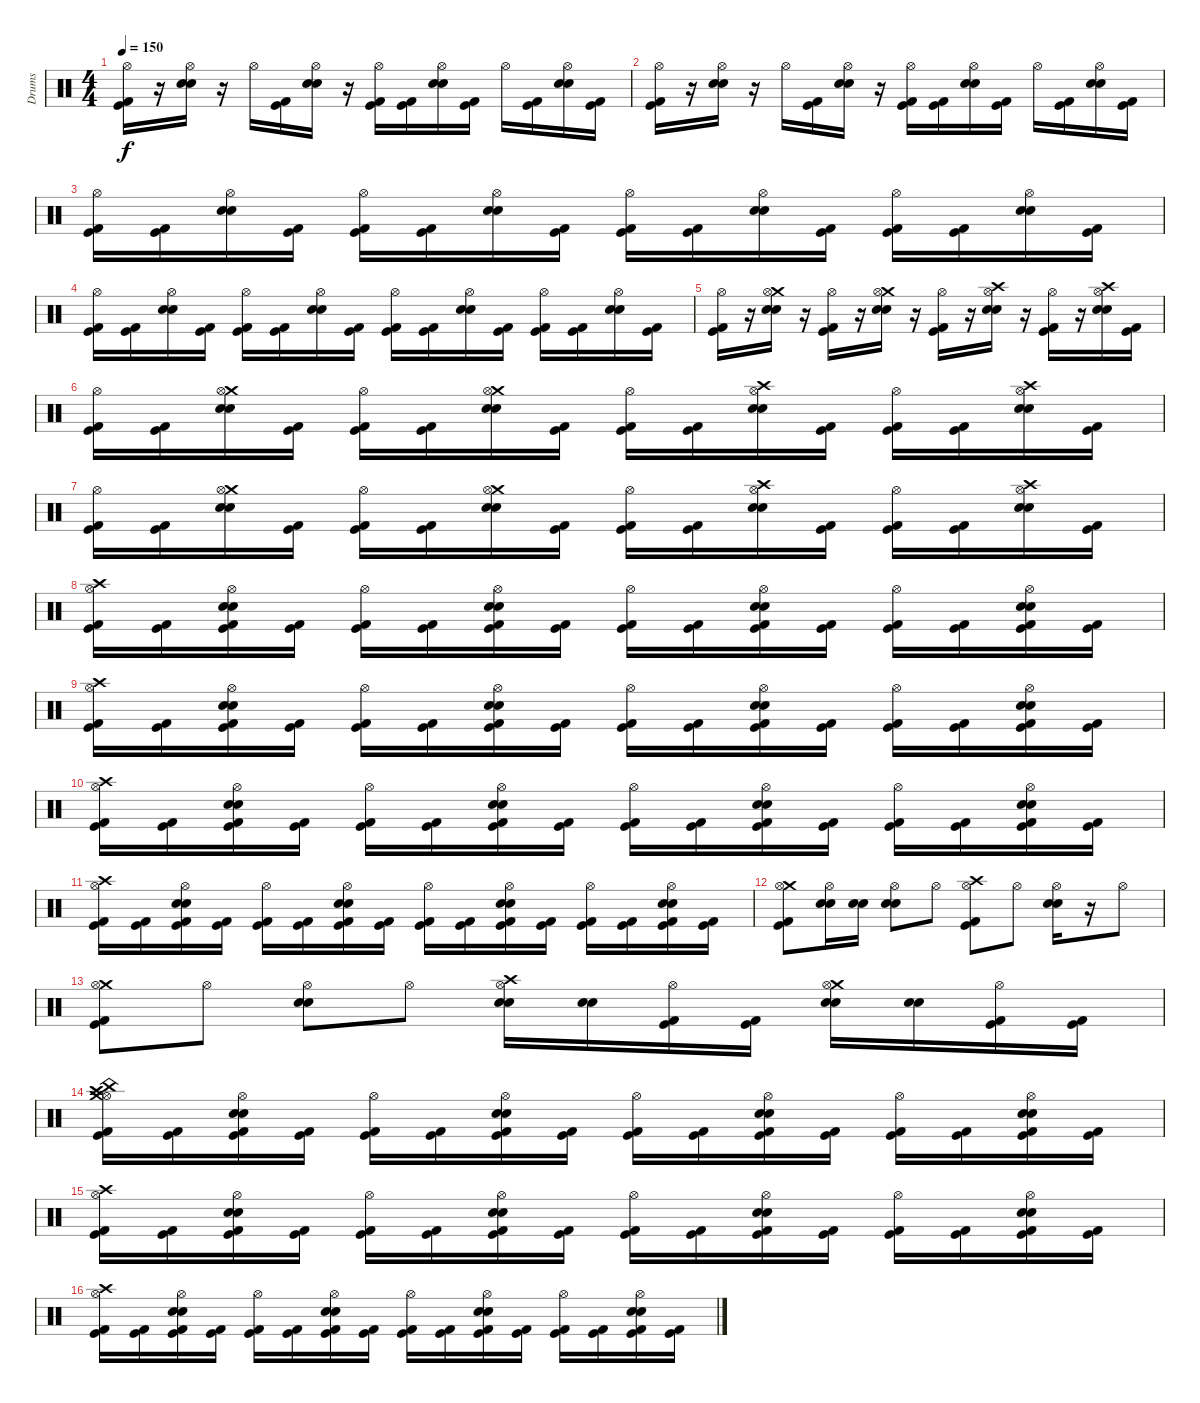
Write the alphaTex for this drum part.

\track ("Drums" "Drums") {instrument percussion}
\staff {score}
\articulation defaults
\ts (4 4)
\tempo 150
\clef neutral
\ks c
("Hi-Hat (open)" "Kick (hit) 2" "Kick (hit)").16{dy f} r.16 ("Hi-Hat (open)" "Snare (hit) 2" "Electric Snare (hit)").16 r.16 "Hi-Hat (open)".16 ("Kick (hit) 2" "Kick (hit)").16 ("Hi-Hat (open)" "Snare (hit) 2" "Electric Snare (hit)").16 r.16 ("Hi-Hat (open)" "Kick (hit) 2" "Kick (hit)").16 ("Kick (hit) 2" "Kick (hit)").16 ("Hi-Hat (open)" "Electric Snare (hit)" "Snare (hit) 2").16 ("Kick (hit) 2" "Kick (hit)").16 "Hi-Hat (open)".16 ("Kick (hit) 2" "Kick (hit)").16 ("Hi-Hat (open)" "Electric Snare (hit)" "Snare (hit) 2").16 ("Kick (hit) 2" "Kick (hit)").16 |
("Hi-Hat (open)" "Kick (hit) 2" "Kick (hit)").16 r.16 ("Hi-Hat (open)" "Snare (hit) 2" "Electric Snare (hit)").16 r.16 "Hi-Hat (open)".16 ("Kick (hit) 2" "Kick (hit)").16 ("Hi-Hat (open)" "Snare (hit) 2" "Electric Snare (hit)").16 r.16 ("Hi-Hat (open)" "Kick (hit) 2" "Kick (hit)").16 ("Kick (hit) 2" "Kick (hit)").16 ("Hi-Hat (open)" "Electric Snare (hit)" "Snare (hit) 2").16 ("Kick (hit) 2" "Kick (hit)").16 "Hi-Hat (open)".16 ("Kick (hit) 2" "Kick (hit)").16 ("Hi-Hat (open)" "Electric Snare (hit)" "Snare (hit) 2").16 ("Kick (hit) 2" "Kick (hit)").16 |
("Hi-Hat (open)" "Kick (hit) 2" "Kick (hit)").16 ("Kick (hit) 2" "Kick (hit)").16 ("Hi-Hat (open)" "Snare (hit) 2" "Electric Snare (hit)").16 ("Kick (hit) 2" "Kick (hit)").16 ("Hi-Hat (open)" "Kick (hit) 2" "Kick (hit)").16 ("Kick (hit) 2" "Kick (hit)").16 ("Hi-Hat (open)" "Snare (hit) 2" "Electric Snare (hit)").16 ("Kick (hit) 2" "Kick (hit)").16 ("Hi-Hat (open)" "Kick (hit) 2" "Kick (hit)").16 ("Kick (hit) 2" "Kick (hit)").16 ("Hi-Hat (open)" "Electric Snare (hit)" "Snare (hit) 2").16 ("Kick (hit) 2" "Kick (hit)").16 ("Hi-Hat (open)" "Kick (hit) 2" "Kick (hit)").16 ("Kick (hit) 2" "Kick (hit)").16 ("Hi-Hat (open)" "Electric Snare (hit)" "Snare (hit) 2").16 ("Kick (hit) 2" "Kick (hit)").16 |
("Hi-Hat (open)" "Kick (hit) 2" "Kick (hit)").16 ("Kick (hit) 2" "Kick (hit)").16 ("Hi-Hat (open)" "Snare (hit) 2" "Electric Snare (hit)").16 ("Kick (hit) 2" "Kick (hit)").16 ("Hi-Hat (open)" "Kick (hit) 2" "Kick (hit)").16 ("Kick (hit) 2" "Kick (hit)").16 ("Hi-Hat (open)" "Snare (hit) 2" "Electric Snare (hit)").16 ("Kick (hit) 2" "Kick (hit)").16 ("Hi-Hat (open)" "Kick (hit) 2" "Kick (hit)").16 ("Kick (hit) 2" "Kick (hit)").16 ("Hi-Hat (open)" "Electric Snare (hit)" "Snare (hit) 2").16 ("Kick (hit) 2" "Kick (hit)").16 ("Hi-Hat (open)" "Kick (hit) 2" "Kick (hit)").16 ("Kick (hit) 2" "Kick (hit)").16 ("Hi-Hat (open)" "Electric Snare (hit)" "Snare (hit) 2").16 ("Kick (hit) 2" "Kick (hit)").16 |
("Hi-Hat (open)" "Kick (hit) 2" "Kick (hit)").16 r.16 ("Crash medium (hit)" "Hi-Hat (open)" "Snare (hit) 2" "Electric Snare (hit)").16 r.16 ("Hi-Hat (open)" "Kick (hit) 2" "Kick (hit)").16 r.16 ("Crash medium (hit)" "Hi-Hat (open)" "Snare (hit) 2" "Electric Snare (hit)").16 r.16 ("Hi-Hat (open)" "Kick (hit) 2" "Kick (hit)").16 r.16 ("Crash high (hit)" "Hi-Hat (open)" "Electric Snare (hit)" "Snare (hit) 2").16 r.16 ("Hi-Hat (open)" "Kick (hit) 2" "Kick (hit)").16 r.16 ("Crash high (hit)" "Hi-Hat (open)" "Electric Snare (hit)" "Snare (hit) 2").16 ("Kick (hit) 2" "Kick (hit)").16 |
("Hi-Hat (open)" "Kick (hit) 2" "Kick (hit)").16 ("Kick (hit) 2" "Kick (hit)").16 ("Crash medium (hit)" "Hi-Hat (open)" "Snare (hit) 2" "Electric Snare (hit)").16 ("Kick (hit) 2" "Kick (hit)").16 ("Hi-Hat (open)" "Kick (hit) 2" "Kick (hit)").16 ("Kick (hit) 2" "Kick (hit)").16 ("Crash medium (hit)" "Hi-Hat (open)" "Snare (hit) 2" "Electric Snare (hit)").16 ("Kick (hit) 2" "Kick (hit)").16 ("Hi-Hat (open)" "Kick (hit) 2" "Kick (hit)").16 ("Kick (hit) 2" "Kick (hit)").16 ("Crash high (hit)" "Hi-Hat (open)" "Electric Snare (hit)" "Snare (hit) 2").16 ("Kick (hit) 2" "Kick (hit)").16 ("Hi-Hat (open)" "Kick (hit) 2" "Kick (hit)").16 ("Kick (hit) 2" "Kick (hit)").16 ("Crash high (hit)" "Hi-Hat (open)" "Electric Snare (hit)" "Snare (hit) 2").16 ("Kick (hit) 2" "Kick (hit)").16 |
("Hi-Hat (open)" "Kick (hit) 2" "Kick (hit)").16 ("Kick (hit) 2" "Kick (hit)").16 ("Crash medium (hit)" "Hi-Hat (open)" "Snare (hit) 2" "Electric Snare (hit)").16 ("Kick (hit) 2" "Kick (hit)").16 ("Hi-Hat (open)" "Kick (hit) 2" "Kick (hit)").16 ("Kick (hit) 2" "Kick (hit)").16 ("Crash medium (hit)" "Hi-Hat (open)" "Snare (hit) 2" "Electric Snare (hit)").16 ("Kick (hit) 2" "Kick (hit)").16 ("Hi-Hat (open)" "Kick (hit) 2" "Kick (hit)").16 ("Kick (hit) 2" "Kick (hit)").16 ("Crash high (hit)" "Hi-Hat (open)" "Electric Snare (hit)" "Snare (hit) 2").16 ("Kick (hit) 2" "Kick (hit)").16 ("Hi-Hat (open)" "Kick (hit) 2" "Kick (hit)").16 ("Kick (hit) 2" "Kick (hit)").16 ("Crash high (hit)" "Hi-Hat (open)" "Electric Snare (hit)" "Snare (hit) 2").16 ("Kick (hit) 2" "Kick (hit)").16 |
("Crash high (hit)" "Hi-Hat (open)" "Kick (hit) 2" "Kick (hit)").16 ("Kick (hit) 2" "Kick (hit)").16 ("Hi-Hat (open)" "Electric Snare (hit)" "Snare (hit) 2" "Kick (hit)" "Kick (hit) 2").16 ("Kick (hit) 2" "Kick (hit)").16 ("Hi-Hat (open)" "Kick (hit) 2" "Kick (hit)").16 ("Kick (hit) 2" "Kick (hit)").16 ("Hi-Hat (open)" "Electric Snare (hit)" "Snare (hit) 2" "Kick (hit) 2" "Kick (hit)").16 ("Kick (hit) 2" "Kick (hit)").16 ("Hi-Hat (open)" "Kick (hit) 2" "Kick (hit)").16 ("Kick (hit) 2" "Kick (hit)").16 ("Hi-Hat (open)" "Electric Snare (hit)" "Snare (hit) 2" "Kick (hit) 2" "Kick (hit)").16 ("Kick (hit) 2" "Kick (hit)").16 ("Hi-Hat (open)" "Kick (hit) 2" "Kick (hit)").16 ("Kick (hit) 2" "Kick (hit)").16 ("Hi-Hat (open)" "Electric Snare (hit)" "Snare (hit) 2" "Kick (hit) 2" "Kick (hit)").16 ("Kick (hit) 2" "Kick (hit)").16 |
("Crash high (hit)" "Hi-Hat (open)" "Kick (hit) 2" "Kick (hit)").16 ("Kick (hit) 2" "Kick (hit)").16 ("Hi-Hat (open)" "Electric Snare (hit)" "Snare (hit) 2" "Kick (hit)" "Kick (hit) 2").16 ("Kick (hit) 2" "Kick (hit)").16 ("Hi-Hat (open)" "Kick (hit) 2" "Kick (hit)").16 ("Kick (hit) 2" "Kick (hit)").16 ("Hi-Hat (open)" "Electric Snare (hit)" "Snare (hit) 2" "Kick (hit) 2" "Kick (hit)").16 ("Kick (hit) 2" "Kick (hit)").16 ("Hi-Hat (open)" "Kick (hit) 2" "Kick (hit)").16 ("Kick (hit) 2" "Kick (hit)").16 ("Hi-Hat (open)" "Electric Snare (hit)" "Snare (hit) 2" "Kick (hit) 2" "Kick (hit)").16 ("Kick (hit) 2" "Kick (hit)").16 ("Hi-Hat (open)" "Kick (hit) 2" "Kick (hit)").16 ("Kick (hit) 2" "Kick (hit)").16 ("Hi-Hat (open)" "Electric Snare (hit)" "Snare (hit) 2" "Kick (hit) 2" "Kick (hit)").16 ("Kick (hit) 2" "Kick (hit)").16 |
("Crash high (hit)" "Hi-Hat (open)" "Kick (hit) 2" "Kick (hit)").16 ("Kick (hit) 2" "Kick (hit)").16 ("Hi-Hat (open)" "Electric Snare (hit)" "Snare (hit) 2" "Kick (hit)" "Kick (hit) 2").16 ("Kick (hit) 2" "Kick (hit)").16 ("Hi-Hat (open)" "Kick (hit) 2" "Kick (hit)").16 ("Kick (hit) 2" "Kick (hit)").16 ("Hi-Hat (open)" "Electric Snare (hit)" "Snare (hit) 2" "Kick (hit) 2" "Kick (hit)").16 ("Kick (hit) 2" "Kick (hit)").16 ("Hi-Hat (open)" "Kick (hit) 2" "Kick (hit)").16 ("Kick (hit) 2" "Kick (hit)").16 ("Hi-Hat (open)" "Electric Snare (hit)" "Snare (hit) 2" "Kick (hit) 2" "Kick (hit)").16 ("Kick (hit) 2" "Kick (hit)").16 ("Hi-Hat (open)" "Kick (hit) 2" "Kick (hit)").16 ("Kick (hit) 2" "Kick (hit)").16 ("Hi-Hat (open)" "Electric Snare (hit)" "Snare (hit) 2" "Kick (hit) 2" "Kick (hit)").16 ("Kick (hit) 2" "Kick (hit)").16 |
("Crash high (hit)" "Hi-Hat (open)" "Kick (hit) 2" "Kick (hit)").16 ("Kick (hit) 2" "Kick (hit)").16 ("Hi-Hat (open)" "Electric Snare (hit)" "Snare (hit) 2" "Kick (hit)" "Kick (hit) 2").16 ("Kick (hit) 2" "Kick (hit)").16 ("Hi-Hat (open)" "Kick (hit) 2" "Kick (hit)").16 ("Kick (hit) 2" "Kick (hit)").16 ("Hi-Hat (open)" "Electric Snare (hit)" "Snare (hit) 2" "Kick (hit) 2" "Kick (hit)").16 ("Kick (hit) 2" "Kick (hit)").16 ("Hi-Hat (open)" "Kick (hit) 2" "Kick (hit)").16 ("Kick (hit) 2" "Kick (hit)").16 ("Hi-Hat (open)" "Electric Snare (hit)" "Snare (hit) 2" "Kick (hit) 2" "Kick (hit)").16 ("Kick (hit) 2" "Kick (hit)").16 ("Hi-Hat (open)" "Kick (hit) 2" "Kick (hit)").16 ("Kick (hit) 2" "Kick (hit)").16 ("Hi-Hat (open)" "Electric Snare (hit)" "Snare (hit) 2" "Kick (hit) 2" "Kick (hit)").16 ("Kick (hit) 2" "Kick (hit)").16 |
("Crash medium (hit)" "Hi-Hat (open)" "Kick (hit) 2" "Kick (hit)").8 ("Hi-Hat (open)" "Electric Snare (hit)" "Snare (hit) 2").16 ("Electric Snare (hit)" "Snare (hit) 2").16 ("Hi-Hat (open)" "Electric Snare (hit)" "Snare (hit) 2").8 "Hi-Hat (open)".8 ("Crash high (hit)" "Hi-Hat (open)" "Kick (hit) 2" "Kick (hit)").8 "Hi-Hat (open)".8 ("Hi-Hat (open)" "Electric Snare (hit)" "Snare (hit) 2").16 r.16 "Hi-Hat (open)".8 |
("Crash medium (hit)" "Hi-Hat (open)" "Kick (hit) 2" "Kick (hit)").8 "Hi-Hat (open)".8 ("Hi-Hat (open)" "Electric Snare (hit)" "Snare (hit) 2").8 "Hi-Hat (open)".8 ("Crash high (hit)" "Hi-Hat (open)" "Electric Snare (hit)" "Snare (hit) 2").16 ("Electric Snare (hit)" "Snare (hit) 2").16 ("Hi-Hat (open)" "Kick (hit)" "Kick (hit) 2").16 ("Kick (hit)" "Kick (hit) 2").16 ("Crash medium (hit)" "Hi-Hat (open)" "Electric Snare (hit)" "Snare (hit) 2").16 ("Electric Snare (hit)" "Snare (hit) 2").16 ("Hi-Hat (open)" "Kick (hit) 2" "Kick (hit)").16 ("Kick (hit)" "Kick (hit) 2").16 |
("Crash high (hit)" "Hi-Hat (open)" "Crash medium (hit)" "China (hit)" "Kick (hit) 2" "Kick (hit)").16 ("Kick (hit) 2" "Kick (hit)").16 ("Hi-Hat (open)" "Electric Snare (hit)" "Snare (hit) 2" "Kick (hit)" "Kick (hit) 2").16 ("Kick (hit) 2" "Kick (hit)").16 ("Hi-Hat (open)" "Kick (hit) 2" "Kick (hit)").16 ("Kick (hit) 2" "Kick (hit)").16 ("Hi-Hat (open)" "Electric Snare (hit)" "Snare (hit) 2" "Kick (hit) 2" "Kick (hit)").16 ("Kick (hit) 2" "Kick (hit)").16 ("Hi-Hat (open)" "Kick (hit) 2" "Kick (hit)").16 ("Kick (hit) 2" "Kick (hit)").16 ("Hi-Hat (open)" "Electric Snare (hit)" "Snare (hit) 2" "Kick (hit) 2" "Kick (hit)").16 ("Kick (hit) 2" "Kick (hit)").16 ("Hi-Hat (open)" "Kick (hit) 2" "Kick (hit)").16 ("Kick (hit) 2" "Kick (hit)").16 ("Hi-Hat (open)" "Electric Snare (hit)" "Snare (hit) 2" "Kick (hit) 2" "Kick (hit)").16 ("Kick (hit) 2" "Kick (hit)").16 |
("Crash high (hit)" "Hi-Hat (open)" "Kick (hit) 2" "Kick (hit)").16 ("Kick (hit) 2" "Kick (hit)").16 ("Hi-Hat (open)" "Electric Snare (hit)" "Snare (hit) 2" "Kick (hit)" "Kick (hit) 2").16 ("Kick (hit) 2" "Kick (hit)").16 ("Hi-Hat (open)" "Kick (hit) 2" "Kick (hit)").16 ("Kick (hit) 2" "Kick (hit)").16 ("Hi-Hat (open)" "Electric Snare (hit)" "Snare (hit) 2" "Kick (hit) 2" "Kick (hit)").16 ("Kick (hit) 2" "Kick (hit)").16 ("Hi-Hat (open)" "Kick (hit) 2" "Kick (hit)").16 ("Kick (hit) 2" "Kick (hit)").16 ("Hi-Hat (open)" "Electric Snare (hit)" "Snare (hit) 2" "Kick (hit) 2" "Kick (hit)").16 ("Kick (hit) 2" "Kick (hit)").16 ("Hi-Hat (open)" "Kick (hit) 2" "Kick (hit)").16 ("Kick (hit) 2" "Kick (hit)").16 ("Hi-Hat (open)" "Electric Snare (hit)" "Snare (hit) 2" "Kick (hit) 2" "Kick (hit)").16 ("Kick (hit) 2" "Kick (hit)").16 |
("Crash high (hit)" "Hi-Hat (open)" "Kick (hit) 2" "Kick (hit)").16 ("Kick (hit) 2" "Kick (hit)").16 ("Hi-Hat (open)" "Electric Snare (hit)" "Snare (hit) 2" "Kick (hit)" "Kick (hit) 2").16 ("Kick (hit) 2" "Kick (hit)").16 ("Hi-Hat (open)" "Kick (hit) 2" "Kick (hit)").16 ("Kick (hit) 2" "Kick (hit)").16 ("Hi-Hat (open)" "Electric Snare (hit)" "Snare (hit) 2" "Kick (hit) 2" "Kick (hit)").16 ("Kick (hit) 2" "Kick (hit)").16 ("Hi-Hat (open)" "Kick (hit) 2" "Kick (hit)").16 ("Kick (hit) 2" "Kick (hit)").16 ("Hi-Hat (open)" "Electric Snare (hit)" "Snare (hit) 2" "Kick (hit) 2" "Kick (hit)").16 ("Kick (hit) 2" "Kick (hit)").16 ("Hi-Hat (open)" "Kick (hit) 2" "Kick (hit)").16 ("Kick (hit) 2" "Kick (hit)").16 ("Hi-Hat (open)" "Electric Snare (hit)" "Snare (hit) 2" "Kick (hit) 2" "Kick (hit)").16 ("Kick (hit) 2" "Kick (hit)").16
